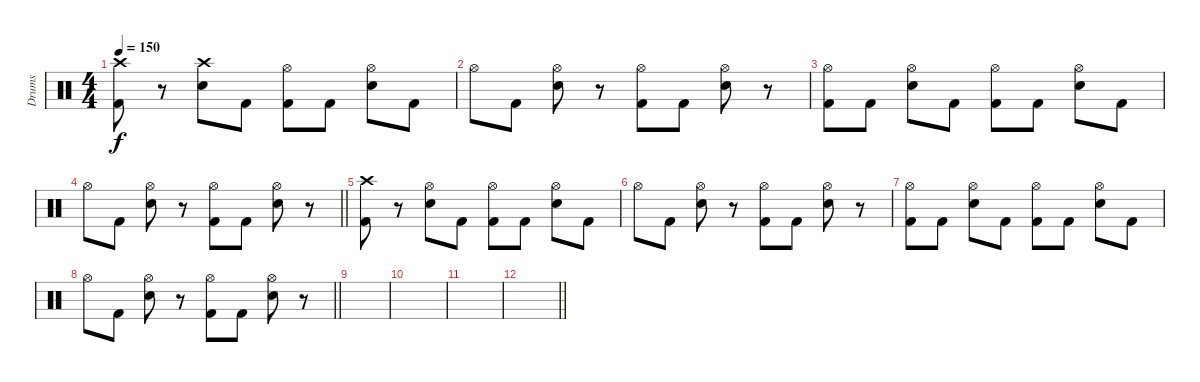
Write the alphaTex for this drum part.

\track ("Drums" "Drums") {instrument percussion}
\staff {score}
\articulation defaults
\ts (4 4)
\tempo 150
\clef neutral
\ks c
("Crash high (hit)" "Kick (hit) 2").8{dy f} r.8 ("Crash high (hit)" "Snare (hit) 2").8 "Kick (hit) 2".8 ("Hi-Hat (open)" "Kick (hit) 2").8 "Kick (hit) 2".8 ("Hi-Hat (open)" "Snare (hit) 2").8 "Kick (hit) 2".8 |
"Hi-Hat (open)".8 "Kick (hit) 2".8 ("Hi-Hat (open)" "Snare (hit) 2").8 r.8 ("Hi-Hat (open)" "Kick (hit) 2").8 "Kick (hit) 2".8 ("Hi-Hat (open)" "Snare (hit) 2").8 r.8 |
("Hi-Hat (open)" "Kick (hit) 2").8 "Kick (hit) 2".8 ("Hi-Hat (open)" "Snare (hit) 2").8 "Kick (hit) 2".8 ("Hi-Hat (open)" "Kick (hit) 2").8 "Kick (hit) 2".8 ("Hi-Hat (open)" "Snare (hit) 2").8 "Kick (hit) 2".8 |
\barLineRight lightlight "Hi-Hat (open)".8 "Kick (hit) 2".8
("Hi-Hat (open)" "Snare (hit) 2").8 r.8 ("Hi-Hat (open)" "Kick (hit) 2").8 "Kick (hit) 2".8 ("Hi-Hat (open)" "Snare (hit) 2").8 r.8 |
("Crash high (hit)" "Kick (hit) 2").8 r.8 ("Hi-Hat (open)" "Snare (hit) 2").8 "Kick (hit) 2".8 ("Hi-Hat (open)" "Kick (hit) 2").8 "Kick (hit) 2".8 ("Hi-Hat (open)" "Snare (hit) 2").8 "Kick (hit) 2".8 |
"Hi-Hat (open)".8 "Kick (hit) 2".8 ("Hi-Hat (open)" "Snare (hit) 2").8 r.8 ("Hi-Hat (open)" "Kick (hit) 2").8 "Kick (hit) 2".8 ("Hi-Hat (open)" "Snare (hit) 2").8 r.8 |
("Hi-Hat (open)" "Kick (hit) 2").8 "Kick (hit) 2".8 ("Hi-Hat (open)" "Snare (hit) 2").8 "Kick (hit) 2".8 ("Hi-Hat (open)" "Kick (hit) 2").8 "Kick (hit) 2".8 ("Hi-Hat (open)" "Snare (hit) 2").8 "Kick (hit) 2".8 |
\barLineRight lightlight "Hi-Hat (open)".8 "Kick (hit) 2".8
("Hi-Hat (open)" "Snare (hit) 2").8 r.8 ("Hi-Hat (open)" "Kick (hit) 2").8 "Kick (hit) 2".8 ("Hi-Hat (open)" "Snare (hit) 2").8 r.8 |
|
|
|
\barLineRight lightlight
